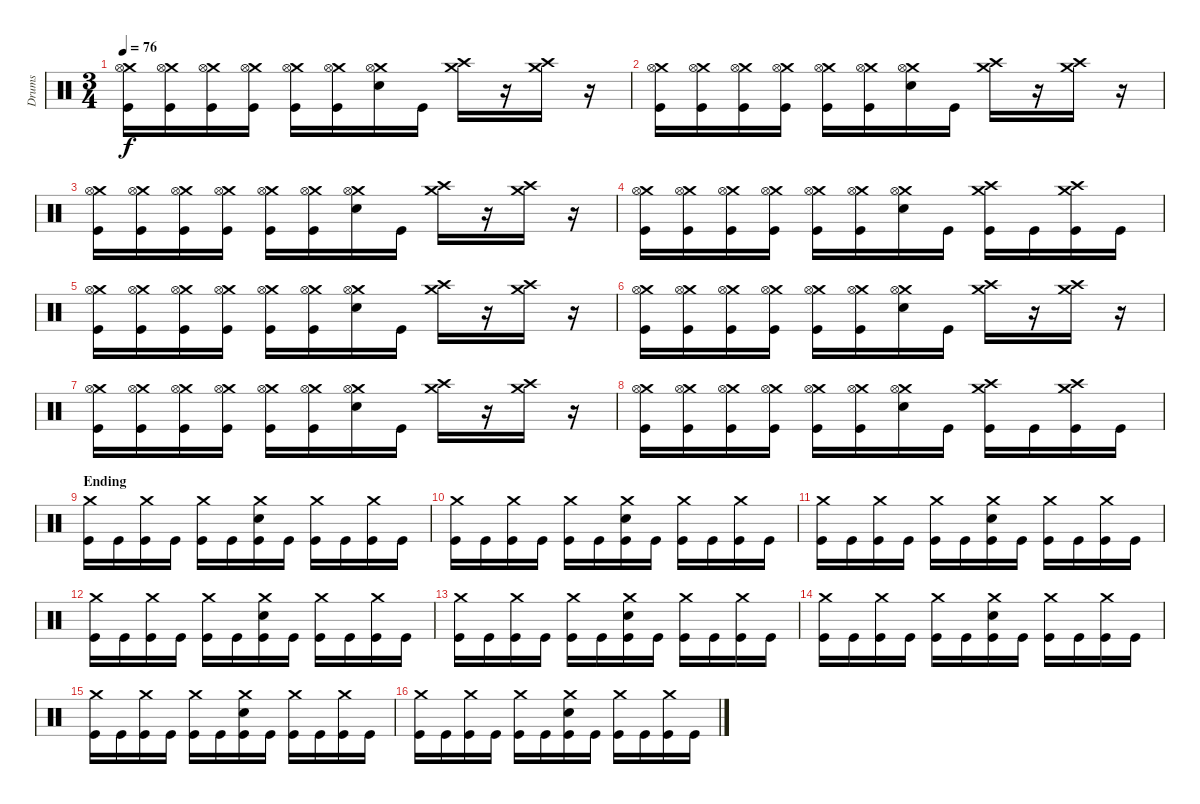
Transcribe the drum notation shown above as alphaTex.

\track ("Drums" "Drums") {instrument percussion}
\staff {score}
\articulation defaults
\ts (3 4)
\tempo 76
\clef neutral
\ks c
("Crash medium (hit)" "Hi-Hat (open)" "Kick (hit)").16{dy f} ("Crash medium (hit)" "Hi-Hat (open)" "Kick (hit)").16 ("Crash medium (hit)" "Hi-Hat (open)" "Kick (hit)").16 ("Crash medium (hit)" "Hi-Hat (open)" "Kick (hit)").16 ("Crash medium (hit)" "Hi-Hat (open)" "Kick (hit)").16 ("Crash medium (hit)" "Hi-Hat (open)" "Kick (hit)").16 ("Crash medium (hit)" "Hi-Hat (open)" "Snare (hit) 2").16 "Kick (hit)".16 ("Crash medium (hit)" "Crash high (hit)").16 r.16 ("Crash medium (hit)" "Crash high (hit)").16 r.16 |
("Crash medium (hit)" "Hi-Hat (open)" "Kick (hit)").16 ("Crash medium (hit)" "Hi-Hat (open)" "Kick (hit)").16 ("Crash medium (hit)" "Hi-Hat (open)" "Kick (hit)").16 ("Crash medium (hit)" "Hi-Hat (open)" "Kick (hit)").16 ("Crash medium (hit)" "Hi-Hat (open)" "Kick (hit)").16 ("Crash medium (hit)" "Hi-Hat (open)" "Kick (hit)").16 ("Crash medium (hit)" "Hi-Hat (open)" "Snare (hit) 2").16 "Kick (hit)".16 ("Crash medium (hit)" "Crash high (hit)").16 r.16 ("Crash medium (hit)" "Crash high (hit)").16 r.16 |
("Crash medium (hit)" "Hi-Hat (open)" "Kick (hit)").16 ("Crash medium (hit)" "Hi-Hat (open)" "Kick (hit)").16 ("Crash medium (hit)" "Hi-Hat (open)" "Kick (hit)").16 ("Crash medium (hit)" "Hi-Hat (open)" "Kick (hit)").16 ("Crash medium (hit)" "Hi-Hat (open)" "Kick (hit)").16 ("Crash medium (hit)" "Hi-Hat (open)" "Kick (hit)").16 ("Crash medium (hit)" "Hi-Hat (open)" "Snare (hit) 2").16 "Kick (hit)".16 ("Crash medium (hit)" "Crash high (hit)").16 r.16 ("Crash medium (hit)" "Crash high (hit)").16 r.16 |
("Crash medium (hit)" "Hi-Hat (open)" "Kick (hit)").16 ("Crash medium (hit)" "Hi-Hat (open)" "Kick (hit)").16 ("Crash medium (hit)" "Hi-Hat (open)" "Kick (hit)").16 ("Crash medium (hit)" "Hi-Hat (open)" "Kick (hit)").16 ("Crash medium (hit)" "Hi-Hat (open)" "Kick (hit)").16 ("Crash medium (hit)" "Hi-Hat (open)" "Kick (hit)").16 ("Crash medium (hit)" "Hi-Hat (open)" "Snare (hit) 2").16 "Kick (hit)".16 ("Crash medium (hit)" "Crash high (hit)" "Kick (hit)").16 "Kick (hit)".16 ("Crash medium (hit)" "Crash high (hit)" "Kick (hit)").16 "Kick (hit)".16 |
("Crash medium (hit)" "Hi-Hat (open)" "Kick (hit)").16 ("Crash medium (hit)" "Hi-Hat (open)" "Kick (hit)").16 ("Crash medium (hit)" "Hi-Hat (open)" "Kick (hit)").16 ("Crash medium (hit)" "Hi-Hat (open)" "Kick (hit)").16 ("Crash medium (hit)" "Hi-Hat (open)" "Kick (hit)").16 ("Crash medium (hit)" "Hi-Hat (open)" "Kick (hit)").16 ("Crash medium (hit)" "Hi-Hat (open)" "Snare (hit) 2").16 "Kick (hit)".16 ("Crash medium (hit)" "Crash high (hit)").16 r.16 ("Crash medium (hit)" "Crash high (hit)").16 r.16 |
("Crash medium (hit)" "Hi-Hat (open)" "Kick (hit)").16 ("Crash medium (hit)" "Hi-Hat (open)" "Kick (hit)").16 ("Crash medium (hit)" "Hi-Hat (open)" "Kick (hit)").16 ("Crash medium (hit)" "Hi-Hat (open)" "Kick (hit)").16 ("Crash medium (hit)" "Hi-Hat (open)" "Kick (hit)").16 ("Crash medium (hit)" "Hi-Hat (open)" "Kick (hit)").16 ("Crash medium (hit)" "Hi-Hat (open)" "Snare (hit) 2").16 "Kick (hit)".16 ("Crash medium (hit)" "Crash high (hit)").16 r.16 ("Crash medium (hit)" "Crash high (hit)").16 r.16 |
("Crash medium (hit)" "Hi-Hat (open)" "Kick (hit)").16 ("Crash medium (hit)" "Hi-Hat (open)" "Kick (hit)").16 ("Crash medium (hit)" "Hi-Hat (open)" "Kick (hit)").16 ("Crash medium (hit)" "Hi-Hat (open)" "Kick (hit)").16 ("Crash medium (hit)" "Hi-Hat (open)" "Kick (hit)").16 ("Crash medium (hit)" "Hi-Hat (open)" "Kick (hit)").16 ("Crash medium (hit)" "Hi-Hat (open)" "Snare (hit) 2").16 "Kick (hit)".16 ("Crash medium (hit)" "Crash high (hit)").16 r.16 ("Crash medium (hit)" "Crash high (hit)").16 r.16 |
("Crash medium (hit)" "Hi-Hat (open)" "Kick (hit)").16 ("Crash medium (hit)" "Hi-Hat (open)" "Kick (hit)").16 ("Crash medium (hit)" "Hi-Hat (open)" "Kick (hit)").16 ("Crash medium (hit)" "Hi-Hat (open)" "Kick (hit)").16 ("Crash medium (hit)" "Hi-Hat (open)" "Kick (hit)").16 ("Crash medium (hit)" "Hi-Hat (open)" "Kick (hit)").16 ("Crash medium (hit)" "Hi-Hat (open)" "Snare (hit) 2").16 "Kick (hit)".16 ("Crash medium (hit)" "Crash high (hit)" "Kick (hit)").16 "Kick (hit)".16 ("Crash medium (hit)" "Crash high (hit)" "Kick (hit)").16 "Kick (hit)".16 |
\section ("" "Ending")
("Crash medium (hit)" "Kick (hit)").16 "Kick (hit)".16 ("Crash medium (hit)" "Kick (hit)").16 "Kick (hit)".16 ("Crash medium (hit)" "Kick (hit)").16 "Kick (hit)".16 ("Crash medium (hit)" "Snare (hit) 2" "Kick (hit)").16 "Kick (hit)".16 ("Crash medium (hit)" "Kick (hit)").16 "Kick (hit)".16 ("Crash medium (hit)" "Kick (hit)").16 "Kick (hit)".16 |
("Crash medium (hit)" "Kick (hit)").16 "Kick (hit)".16 ("Crash medium (hit)" "Kick (hit)").16 "Kick (hit)".16 ("Crash medium (hit)" "Kick (hit)").16 "Kick (hit)".16 ("Crash medium (hit)" "Snare (hit) 2" "Kick (hit)").16 "Kick (hit)".16 ("Crash medium (hit)" "Kick (hit)").16 "Kick (hit)".16 ("Crash medium (hit)" "Kick (hit)").16 "Kick (hit)".16 |
("Crash medium (hit)" "Kick (hit)").16 "Kick (hit)".16 ("Crash medium (hit)" "Kick (hit)").16 "Kick (hit)".16 ("Crash medium (hit)" "Kick (hit)").16 "Kick (hit)".16 ("Crash medium (hit)" "Snare (hit) 2" "Kick (hit)").16 "Kick (hit)".16 ("Crash medium (hit)" "Kick (hit)").16 "Kick (hit)".16 ("Crash medium (hit)" "Kick (hit)").16 "Kick (hit)".16 |
("Crash medium (hit)" "Kick (hit)").16 "Kick (hit)".16 ("Crash medium (hit)" "Kick (hit)").16 "Kick (hit)".16 ("Crash medium (hit)" "Kick (hit)").16 "Kick (hit)".16 ("Crash medium (hit)" "Snare (hit) 2" "Kick (hit)").16 "Kick (hit)".16 ("Crash medium (hit)" "Kick (hit)").16 "Kick (hit)".16 ("Crash medium (hit)" "Kick (hit)").16 "Kick (hit)".16 |
("Crash medium (hit)" "Kick (hit)").16 "Kick (hit)".16 ("Crash medium (hit)" "Kick (hit)").16 "Kick (hit)".16 ("Crash medium (hit)" "Kick (hit)").16 "Kick (hit)".16 ("Crash medium (hit)" "Snare (hit) 2" "Kick (hit)").16 "Kick (hit)".16 ("Crash medium (hit)" "Kick (hit)").16 "Kick (hit)".16 ("Crash medium (hit)" "Kick (hit)").16 "Kick (hit)".16 |
("Crash medium (hit)" "Kick (hit)").16 "Kick (hit)".16 ("Crash medium (hit)" "Kick (hit)").16 "Kick (hit)".16 ("Crash medium (hit)" "Kick (hit)").16 "Kick (hit)".16 ("Crash medium (hit)" "Snare (hit) 2" "Kick (hit)").16 "Kick (hit)".16 ("Crash medium (hit)" "Kick (hit)").16 "Kick (hit)".16 ("Crash medium (hit)" "Kick (hit)").16 "Kick (hit)".16 |
("Crash medium (hit)" "Kick (hit)").16 "Kick (hit)".16 ("Crash medium (hit)" "Kick (hit)").16 "Kick (hit)".16 ("Crash medium (hit)" "Kick (hit)").16 "Kick (hit)".16 ("Crash medium (hit)" "Snare (hit) 2" "Kick (hit)").16 "Kick (hit)".16 ("Crash medium (hit)" "Kick (hit)").16 "Kick (hit)".16 ("Crash medium (hit)" "Kick (hit)").16 "Kick (hit)".16 |
("Crash medium (hit)" "Kick (hit)").16 "Kick (hit)".16 ("Crash medium (hit)" "Kick (hit)").16 "Kick (hit)".16 ("Crash medium (hit)" "Kick (hit)").16 "Kick (hit)".16 ("Crash medium (hit)" "Snare (hit) 2" "Kick (hit)").16 "Kick (hit)".16 ("Crash medium (hit)" "Kick (hit)").16 "Kick (hit)".16 ("Crash medium (hit)" "Kick (hit)").16 "Kick (hit)".16
